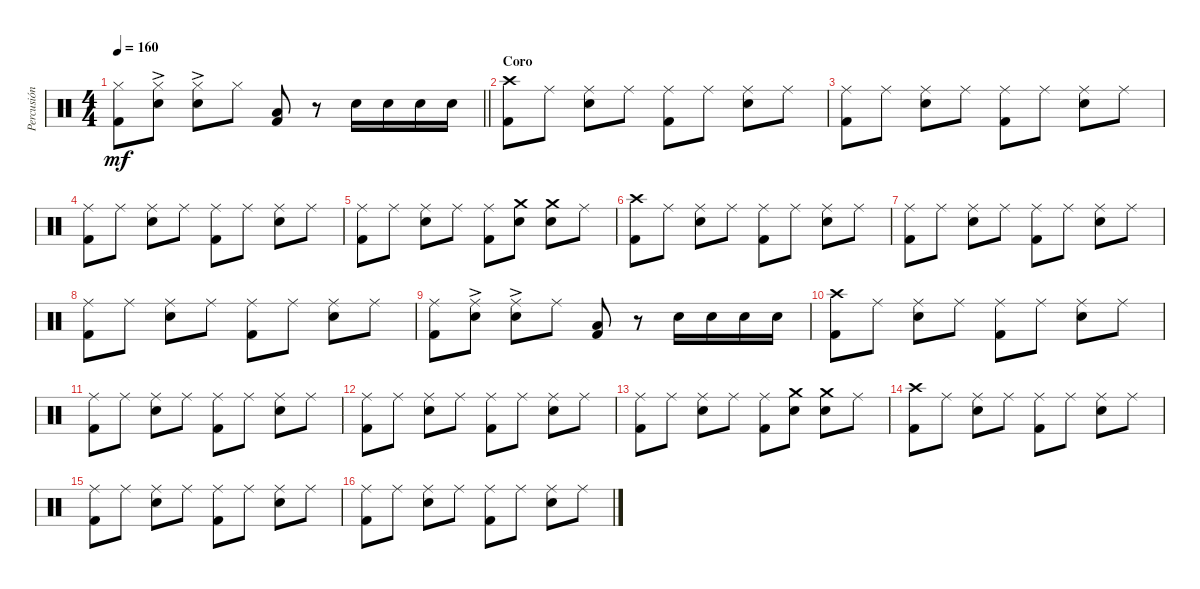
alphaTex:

\track ("Percusión" "Percusión") {instrument percussion}
\staff {score}
\articulation defaults
\ts (4 4)
\tempo 160
\clef neutral
\barLineRight lightlight
\ks c
("Hi-Hat (closed)" "Kick (hit) 2").8{dy mf} ("Hi-Hat (closed)" "Electric Snare (hit)"{ac}).8 ("Hi-Hat (closed)" "Electric Snare (hit)"{ac}).8 "Hi-Hat (closed)".8 ("Low Floor Tom (hit)" "Kick (hit) 2").8 r.8 "Electric Snare (hit)".16 "Electric Snare (hit)".16 "Electric Snare (hit)".16 "Electric Snare (hit)".16 |
\section ("" "Coro")
("Crash high (hit)" "Kick (hit) 2").8 "Ride (middle)".8 ("Ride (middle)" "Electric Snare (hit)").8 "Ride (middle)".8 ("Ride (middle)" "Kick (hit) 2").8 "Ride (middle)".8 ("Ride (middle)" "Electric Snare (hit)").8 "Ride (middle)".8 |
("Ride (middle)" "Kick (hit) 2").8 "Ride (middle)".8 ("Ride (middle)" "Electric Snare (hit)").8 "Ride (middle)".8 ("Ride (middle)" "Kick (hit) 2").8 "Ride (middle)".8 ("Ride (middle)" "Electric Snare (hit)").8 "Ride (middle)".8 |
("Ride (middle)" "Kick (hit) 2").8 "Ride (middle)".8 ("Ride (middle)" "Electric Snare (hit)").8 "Ride (middle)".8 ("Ride (middle)" "Kick (hit) 2").8 "Ride (middle)".8 ("Ride (middle)" "Electric Snare (hit)").8 "Ride (middle)".8 |
("Ride (middle)" "Kick (hit) 2").8 "Ride (middle)".8 ("Ride (middle)" "Electric Snare (hit)").8 "Ride (middle)".8 ("Ride (middle)" "Kick (hit) 2").8 ("Crash medium (hit)" "Electric Snare (hit)").8 ("Crash medium (hit)" "Electric Snare (hit)").8 "Ride (middle)".8 |
("Crash high (hit)" "Kick (hit) 2").8 "Ride (middle)".8 ("Ride (middle)" "Electric Snare (hit)").8 "Ride (middle)".8 ("Ride (middle)" "Kick (hit) 2").8 "Ride (middle)".8 ("Ride (middle)" "Electric Snare (hit)").8 "Ride (middle)".8 |
("Ride (middle)" "Kick (hit) 2").8 "Ride (middle)".8 ("Ride (middle)" "Electric Snare (hit)").8 "Ride (middle)".8 ("Ride (middle)" "Kick (hit) 2").8 "Ride (middle)".8 ("Ride (middle)" "Electric Snare (hit)").8 "Ride (middle)".8 |
("Ride (middle)" "Kick (hit) 2").8 "Ride (middle)".8 ("Ride (middle)" "Electric Snare (hit)").8 "Ride (middle)".8 ("Ride (middle)" "Kick (hit) 2").8 "Ride (middle)".8 ("Ride (middle)" "Electric Snare (hit)").8 "Ride (middle)".8 |
("Ride (middle)" "Kick (hit) 2").8 ("Ride (middle)" "Electric Snare (hit)"{ac}).8 ("Ride (middle)" "Electric Snare (hit)"{ac}).8 "Ride (middle)".8 ("Low Floor Tom (hit)" "Kick (hit) 2").8 r.8 "Electric Snare (hit)".16 "Electric Snare (hit)".16 "Electric Snare (hit)".16 "Electric Snare (hit)".16 |
("Crash high (hit)" "Kick (hit) 2").8 "Ride (middle)".8 ("Ride (middle)" "Electric Snare (hit)").8 "Ride (middle)".8 ("Ride (middle)" "Kick (hit) 2").8 "Ride (middle)".8 ("Ride (middle)" "Electric Snare (hit)").8 "Ride (middle)".8 |
("Ride (middle)" "Kick (hit) 2").8 "Ride (middle)".8 ("Ride (middle)" "Electric Snare (hit)").8 "Ride (middle)".8 ("Ride (middle)" "Kick (hit) 2").8 "Ride (middle)".8 ("Ride (middle)" "Electric Snare (hit)").8 "Ride (middle)".8 |
("Ride (middle)" "Kick (hit) 2").8 "Ride (middle)".8 ("Ride (middle)" "Electric Snare (hit)").8 "Ride (middle)".8 ("Ride (middle)" "Kick (hit) 2").8 "Ride (middle)".8 ("Ride (middle)" "Electric Snare (hit)").8 "Ride (middle)".8 |
("Ride (middle)" "Kick (hit) 2").8 "Ride (middle)".8 ("Ride (middle)" "Electric Snare (hit)").8 "Ride (middle)".8 ("Ride (middle)" "Kick (hit) 2").8 ("Crash medium (hit)" "Electric Snare (hit)").8 ("Crash medium (hit)" "Electric Snare (hit)").8 "Ride (middle)".8 |
("Crash high (hit)" "Kick (hit) 2").8 "Ride (middle)".8 ("Ride (middle)" "Electric Snare (hit)").8 "Ride (middle)".8 ("Ride (middle)" "Kick (hit) 2").8 "Ride (middle)".8 ("Ride (middle)" "Electric Snare (hit)").8 "Ride (middle)".8 |
("Ride (middle)" "Kick (hit) 2").8 "Ride (middle)".8 ("Ride (middle)" "Electric Snare (hit)").8 "Ride (middle)".8 ("Ride (middle)" "Kick (hit) 2").8 "Ride (middle)".8 ("Ride (middle)" "Electric Snare (hit)").8 "Ride (middle)".8 |
("Ride (middle)" "Kick (hit) 2").8 "Ride (middle)".8 ("Ride (middle)" "Electric Snare (hit)").8 "Ride (middle)".8 ("Ride (middle)" "Kick (hit) 2").8 "Ride (middle)".8 ("Ride (middle)" "Electric Snare (hit)").8 "Ride (middle)".8
